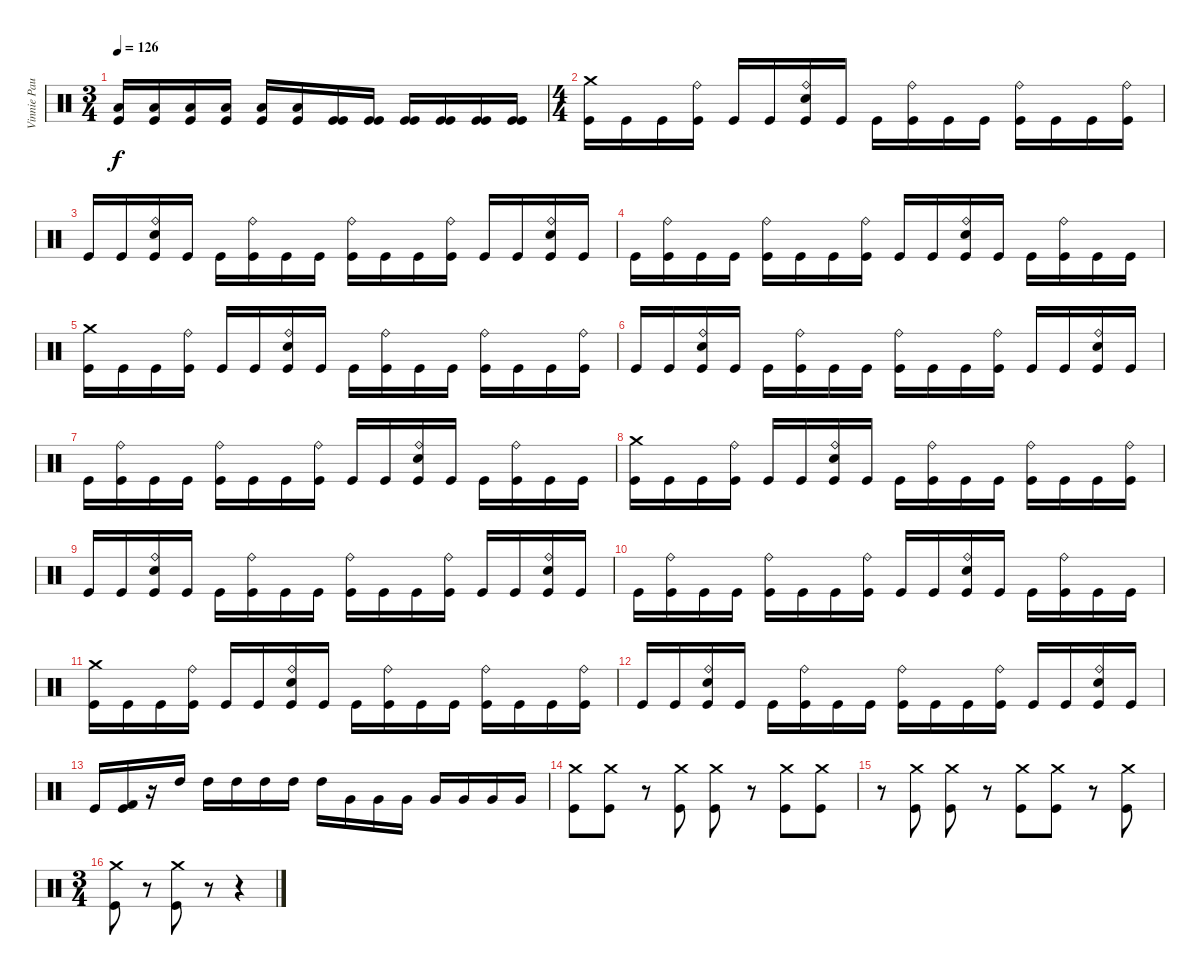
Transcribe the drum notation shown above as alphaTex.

\track ("Vinnie Paul" "Vinnie Pau") {instrument percussion}
\staff {score}
\articulation defaults
\ts (3 4)
\tempo 126
\clef neutral
\ks c
("Low Floor Tom (hit)" "Kick (hit)").16{dy f} ("Low Floor Tom (hit)" "Kick (hit)").16 ("Low Floor Tom (hit)" "Kick (hit)").16 ("Low Floor Tom (hit)" "Kick (hit)").16 ("Low Floor Tom (hit)" "Kick (hit)").16 ("Low Floor Tom (hit)" "Kick (hit)").16 ("Kick (hit)" "Kick (hit)").16 ("Kick (hit)" "Kick (hit)").16 ("Kick (hit)" "Kick (hit)").16 ("Kick (hit)" "Kick (hit)").16 ("Kick (hit)" "Kick (hit)").16 ("Kick (hit)" "Kick (hit)").16 |
\ts (4 4)
("Kick (hit)" "Crash medium (hit)").16 "Kick (hit)".16 "Kick (hit)".16 ("Kick (hit)" "Ride (bell)").16 "Kick (hit)".16 "Kick (hit)".16 ("Kick (hit)" "Snare (hit) 2" "Ride (bell)").16 "Kick (hit)".16 "Kick (hit)".16 ("Kick (hit)" "Ride (bell)").16 "Kick (hit)".16 "Kick (hit)".16 ("Kick (hit)" "Ride (bell)").16 "Kick (hit)".16 "Kick (hit)".16 ("Kick (hit)" "Ride (bell)").16 |
"Kick (hit)".16 "Kick (hit)".16 ("Kick (hit)" "Snare (hit) 2" "Ride (bell)").16 "Kick (hit)".16 "Kick (hit)".16 ("Kick (hit)" "Ride (bell)").16 "Kick (hit)".16 "Kick (hit)".16 ("Kick (hit)" "Ride (bell)").16 "Kick (hit)".16 "Kick (hit)".16 ("Kick (hit)" "Ride (bell)").16 "Kick (hit)".16 "Kick (hit)".16 ("Kick (hit)" "Snare (hit) 2" "Ride (bell)").16 "Kick (hit)".16 |
"Kick (hit)".16 ("Kick (hit)" "Ride (bell)").16 "Kick (hit)".16 "Kick (hit)".16 ("Kick (hit)" "Ride (bell)").16 "Kick (hit)".16 "Kick (hit)".16 ("Kick (hit)" "Ride (bell)").16 "Kick (hit)".16 "Kick (hit)".16 ("Kick (hit)" "Snare (hit) 2" "Ride (bell)").16 "Kick (hit)".16 "Kick (hit)".16 ("Kick (hit)" "Ride (bell)").16 "Kick (hit)".16 "Kick (hit)".16 |
("Kick (hit)" "Crash medium (hit)").16 "Kick (hit)".16 "Kick (hit)".16 ("Kick (hit)" "Ride (bell)").16 "Kick (hit)".16 "Kick (hit)".16 ("Kick (hit)" "Snare (hit) 2" "Ride (bell)").16 "Kick (hit)".16 "Kick (hit)".16 ("Kick (hit)" "Ride (bell)").16 "Kick (hit)".16 "Kick (hit)".16 ("Kick (hit)" "Ride (bell)").16 "Kick (hit)".16 "Kick (hit)".16 ("Kick (hit)" "Ride (bell)").16 |
"Kick (hit)".16 "Kick (hit)".16 ("Kick (hit)" "Snare (hit) 2" "Ride (bell)").16 "Kick (hit)".16 "Kick (hit)".16 ("Kick (hit)" "Ride (bell)").16 "Kick (hit)".16 "Kick (hit)".16 ("Kick (hit)" "Ride (bell)").16 "Kick (hit)".16 "Kick (hit)".16 ("Kick (hit)" "Ride (bell)").16 "Kick (hit)".16 "Kick (hit)".16 ("Kick (hit)" "Snare (hit) 2" "Ride (bell)").16 "Kick (hit)".16 |
"Kick (hit)".16 ("Kick (hit)" "Ride (bell)").16 "Kick (hit)".16 "Kick (hit)".16 ("Kick (hit)" "Ride (bell)").16 "Kick (hit)".16 "Kick (hit)".16 ("Kick (hit)" "Ride (bell)").16 "Kick (hit)".16 "Kick (hit)".16 ("Kick (hit)" "Snare (hit) 2" "Ride (bell)").16 "Kick (hit)".16 "Kick (hit)".16 ("Kick (hit)" "Ride (bell)").16 "Kick (hit)".16 "Kick (hit)".16 |
("Kick (hit)" "Crash medium (hit)").16 "Kick (hit)".16 "Kick (hit)".16 ("Kick (hit)" "Ride (bell)").16 "Kick (hit)".16 "Kick (hit)".16 ("Kick (hit)" "Snare (hit) 2" "Ride (bell)").16 "Kick (hit)".16 "Kick (hit)".16 ("Kick (hit)" "Ride (bell)").16 "Kick (hit)".16 "Kick (hit)".16 ("Kick (hit)" "Ride (bell)").16 "Kick (hit)".16 "Kick (hit)".16 ("Kick (hit)" "Ride (bell)").16 |
"Kick (hit)".16 "Kick (hit)".16 ("Kick (hit)" "Snare (hit) 2" "Ride (bell)").16 "Kick (hit)".16 "Kick (hit)".16 ("Kick (hit)" "Ride (bell)").16 "Kick (hit)".16 "Kick (hit)".16 ("Kick (hit)" "Ride (bell)").16 "Kick (hit)".16 "Kick (hit)".16 ("Kick (hit)" "Ride (bell)").16 "Kick (hit)".16 "Kick (hit)".16 ("Kick (hit)" "Snare (hit) 2" "Ride (bell)").16 "Kick (hit)".16 |
"Kick (hit)".16 ("Kick (hit)" "Ride (bell)").16 "Kick (hit)".16 "Kick (hit)".16 ("Kick (hit)" "Ride (bell)").16 "Kick (hit)".16 "Kick (hit)".16 ("Kick (hit)" "Ride (bell)").16 "Kick (hit)".16 "Kick (hit)".16 ("Kick (hit)" "Snare (hit) 2" "Ride (bell)").16 "Kick (hit)".16 "Kick (hit)".16 ("Kick (hit)" "Ride (bell)").16 "Kick (hit)".16 "Kick (hit)".16 |
("Kick (hit)" "Crash medium (hit)").16 "Kick (hit)".16 "Kick (hit)".16 ("Kick (hit)" "Ride (bell)").16 "Kick (hit)".16 "Kick (hit)".16 ("Kick (hit)" "Snare (hit) 2" "Ride (bell)").16 "Kick (hit)".16 "Kick (hit)".16 ("Kick (hit)" "Ride (bell)").16 "Kick (hit)".16 "Kick (hit)".16 ("Kick (hit)" "Ride (bell)").16 "Kick (hit)".16 "Kick (hit)".16 ("Kick (hit)" "Ride (bell)").16 |
"Kick (hit)".16 "Kick (hit)".16 ("Kick (hit)" "Snare (hit) 2" "Ride (bell)").16 "Kick (hit)".16 "Kick (hit)".16 ("Kick (hit)" "Ride (bell)").16 "Kick (hit)".16 "Kick (hit)".16 ("Kick (hit)" "Ride (bell)").16 "Kick (hit)".16 "Kick (hit)".16 ("Kick (hit)" "Ride (bell)").16 "Kick (hit)".16 "Kick (hit)".16 ("Kick (hit)" "Snare (hit) 2" "Ride (bell)").16 "Kick (hit)".16 |
"Kick (hit)".16 ("Kick (hit)" "Kick (hit) 2").16 r.16 "High Tom (hit)".16 "High Tom (hit)".16 "High Tom (hit)".16 "High Tom (hit)".16 "High Tom (hit)".16 "High Tom (hit)".16 "Very Low Tom (hit)".16 "Very Low Tom (hit)".16 "Very Low Tom (hit)".16 "Very Low Tom (hit)".16 "Very Low Tom (hit)".16 "Very Low Tom (hit)".16 "Very Low Tom (hit)".16 |
("Kick (hit)" "Crash medium (hit)").8 ("Kick (hit)" "Crash medium (hit)").8 r.8 ("Kick (hit)" "Crash medium (hit)").8 ("Kick (hit)" "Crash medium (hit)").8 r.8 ("Kick (hit)" "Crash medium (hit)").8 ("Kick (hit)" "Crash medium (hit)").8 |
r.8 ("Kick (hit)" "Crash medium (hit)").8 ("Kick (hit)" "Crash medium (hit)").8 r.8 ("Kick (hit)" "Crash medium (hit)").8 ("Kick (hit)" "Crash medium (hit)").8 r.8 ("Kick (hit)" "Crash medium (hit)").8 |
\ts (3 4)
("Kick (hit)" "Crash medium (hit)").8 r.8 ("Kick (hit)" "Crash medium (hit)").8 r.8 r.4
